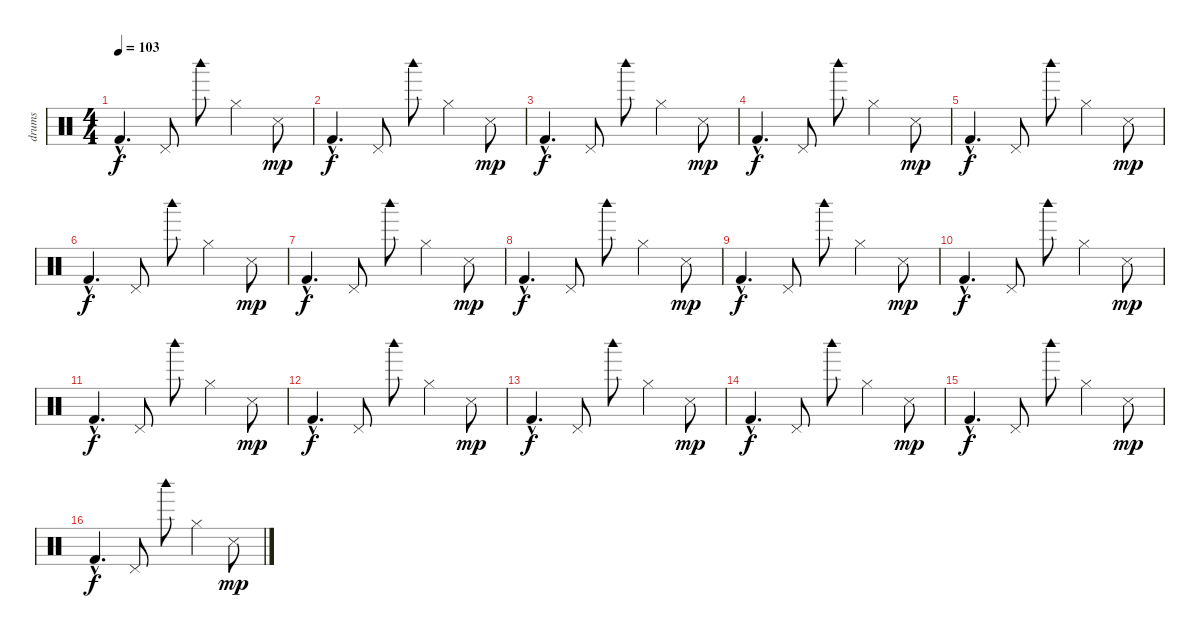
\track ("drums" "drums") {instrument percussion}
\staff {score}
\articulation defaults
\ts (4 4)
\tempo 103
\clef neutral
\ks c "Kick (hit) 2"{hac}.4{d dy f} "Pedal Hi-Hat (hit)".8 "Woodblock high (hit)".8 "Hi-Hat (closed)".4 "Snare (side stick) 3".8{dy mp}
|
"Kick (hit) 2"{hac}.4{d dy f} "Pedal Hi-Hat (hit)".8 "Woodblock high (hit)".8 "Hi-Hat (closed)".4 "Snare (side stick) 3".8{dy mp} |
"Kick (hit) 2"{hac}.4{d dy f} "Pedal Hi-Hat (hit)".8 "Woodblock high (hit)".8 "Hi-Hat (closed)".4 "Snare (side stick) 3".8{dy mp} |
"Kick (hit) 2"{hac}.4{d dy f} "Pedal Hi-Hat (hit)".8 "Woodblock high (hit)".8 "Hi-Hat (closed)".4 "Snare (side stick) 3".8{dy mp} |
"Kick (hit) 2"{hac}.4{d dy f} "Pedal Hi-Hat (hit)".8 "Woodblock high (hit)".8 "Hi-Hat (closed)".4 "Snare (side stick) 3".8{dy mp} |
"Kick (hit) 2"{hac}.4{d dy f} "Pedal Hi-Hat (hit)".8 "Woodblock high (hit)".8 "Hi-Hat (closed)".4 "Snare (side stick) 3".8{dy mp} |
"Kick (hit) 2"{hac}.4{d dy f} "Pedal Hi-Hat (hit)".8 "Woodblock high (hit)".8 "Hi-Hat (closed)".4 "Snare (side stick) 3".8{dy mp} |
"Kick (hit) 2"{hac}.4{d dy f} "Pedal Hi-Hat (hit)".8 "Woodblock high (hit)".8 "Hi-Hat (closed)".4 "Snare (side stick) 3".8{dy mp} |
"Kick (hit) 2"{hac}.4{d dy f} "Pedal Hi-Hat (hit)".8 "Woodblock high (hit)".8 "Hi-Hat (closed)".4 "Snare (side stick) 3".8{dy mp} |
"Kick (hit) 2"{hac}.4{d dy f} "Pedal Hi-Hat (hit)".8 "Woodblock high (hit)".8 "Hi-Hat (closed)".4 "Snare (side stick) 3".8{dy mp} |
"Kick (hit) 2"{hac}.4{d dy f} "Pedal Hi-Hat (hit)".8 "Woodblock high (hit)".8 "Hi-Hat (closed)".4 "Snare (side stick) 3".8{dy mp} |
"Kick (hit) 2"{hac}.4{d dy f} "Pedal Hi-Hat (hit)".8 "Woodblock high (hit)".8 "Hi-Hat (closed)".4 "Snare (side stick) 3".8{dy mp} |
"Kick (hit) 2"{hac}.4{d dy f} "Pedal Hi-Hat (hit)".8 "Woodblock high (hit)".8 "Hi-Hat (closed)".4 "Snare (side stick) 3".8{dy mp} |
"Kick (hit) 2"{hac}.4{d dy f} "Pedal Hi-Hat (hit)".8 "Woodblock high (hit)".8 "Hi-Hat (closed)".4 "Snare (side stick) 3".8{dy mp} |
"Kick (hit) 2"{hac}.4{d dy f} "Pedal Hi-Hat (hit)".8 "Woodblock high (hit)".8 "Hi-Hat (closed)".4 "Snare (side stick) 3".8{dy mp} |
"Kick (hit) 2"{hac}.4{d dy f} "Pedal Hi-Hat (hit)".8 "Woodblock high (hit)".8 "Hi-Hat (closed)".4 "Snare (side stick) 3".8{dy mp}
